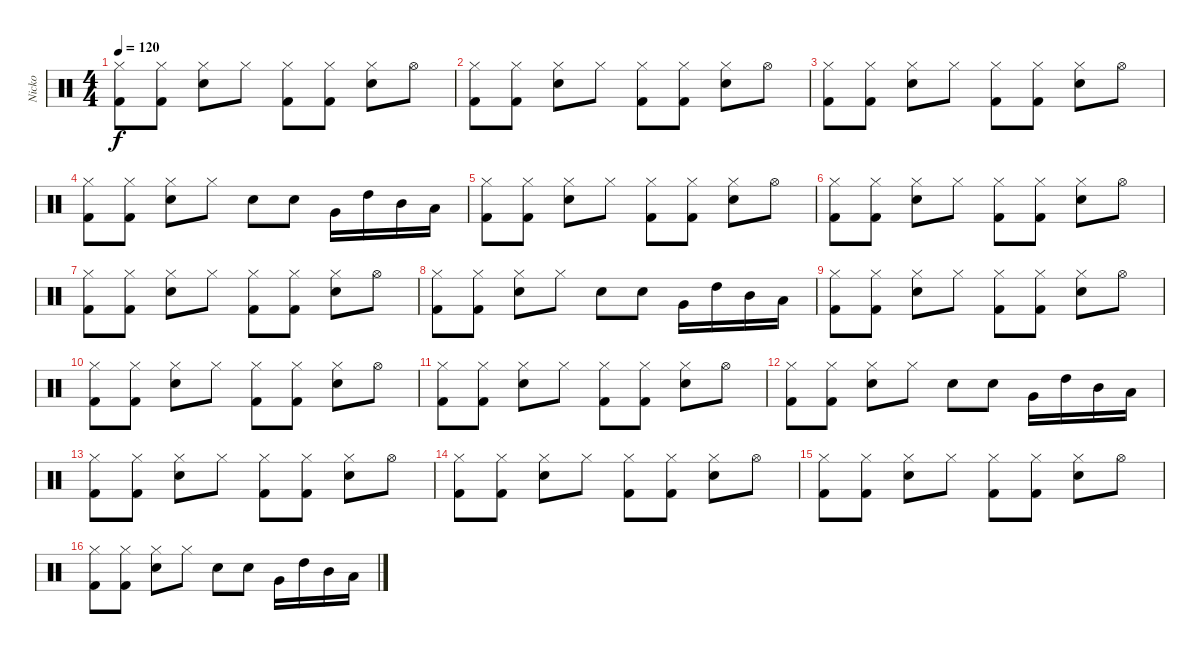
\track ("Nicko" "Nicko") {instrument percussion}
\staff {score}
\articulation defaults
\ts (4 4)
\tempo 120
\clef neutral
\ks c
("Kick (hit) 2" "Hi-Hat (closed)").8{dy f} ("Kick (hit) 2" "Hi-Hat (closed)").8 ("Electric Snare (hit)" "Hi-Hat (closed)").8 "Hi-Hat (closed)".8 ("Kick (hit) 2" "Hi-Hat (closed)").8 ("Kick (hit) 2" "Hi-Hat (closed)").8 ("Electric Snare (hit)" "Hi-Hat (closed)").8 "Hi-Hat (open)".8 |
("Kick (hit) 2" "Hi-Hat (closed)").8 ("Kick (hit) 2" "Hi-Hat (closed)").8 ("Electric Snare (hit)" "Hi-Hat (closed)").8 "Hi-Hat (closed)".8 ("Kick (hit) 2" "Hi-Hat (closed)").8 ("Kick (hit) 2" "Hi-Hat (closed)").8 ("Electric Snare (hit)" "Hi-Hat (closed)").8 "Hi-Hat (open)".8 |
("Kick (hit) 2" "Hi-Hat (closed)").8 ("Kick (hit) 2" "Hi-Hat (closed)").8 ("Electric Snare (hit)" "Hi-Hat (closed)").8 "Hi-Hat (closed)".8 ("Kick (hit) 2" "Hi-Hat (closed)").8 ("Kick (hit) 2" "Hi-Hat (closed)").8 ("Electric Snare (hit)" "Hi-Hat (closed)").8 "Hi-Hat (open)".8 |
("Kick (hit) 2" "Hi-Hat (closed)").8 ("Kick (hit) 2" "Hi-Hat (closed)").8 ("Electric Snare (hit)" "Hi-Hat (closed)").8 "Hi-Hat (closed)".8 "Snare (hit) 2".8 "Snare (hit) 2".8 "Very Low Tom (hit)".16 "High Tom (hit)".16 "Mid Tom (hit)".16 "Low Tom (hit)".16 |
("Kick (hit) 2" "Hi-Hat (closed)").8 ("Kick (hit) 2" "Hi-Hat (closed)").8 ("Electric Snare (hit)" "Hi-Hat (closed)").8 "Hi-Hat (closed)".8 ("Kick (hit) 2" "Hi-Hat (closed)").8 ("Kick (hit) 2" "Hi-Hat (closed)").8 ("Electric Snare (hit)" "Hi-Hat (closed)").8 "Hi-Hat (open)".8 |
("Kick (hit) 2" "Hi-Hat (closed)").8 ("Kick (hit) 2" "Hi-Hat (closed)").8 ("Electric Snare (hit)" "Hi-Hat (closed)").8 "Hi-Hat (closed)".8 ("Kick (hit) 2" "Hi-Hat (closed)").8 ("Kick (hit) 2" "Hi-Hat (closed)").8 ("Electric Snare (hit)" "Hi-Hat (closed)").8 "Hi-Hat (open)".8 |
("Kick (hit) 2" "Hi-Hat (closed)").8 ("Kick (hit) 2" "Hi-Hat (closed)").8 ("Electric Snare (hit)" "Hi-Hat (closed)").8 "Hi-Hat (closed)".8 ("Kick (hit) 2" "Hi-Hat (closed)").8 ("Kick (hit) 2" "Hi-Hat (closed)").8 ("Electric Snare (hit)" "Hi-Hat (closed)").8 "Hi-Hat (open)".8 |
("Kick (hit) 2" "Hi-Hat (closed)").8 ("Kick (hit) 2" "Hi-Hat (closed)").8 ("Electric Snare (hit)" "Hi-Hat (closed)").8 "Hi-Hat (closed)".8 "Snare (hit) 2".8 "Snare (hit) 2".8 "Very Low Tom (hit)".16 "High Tom (hit)".16 "Mid Tom (hit)".16 "Low Tom (hit)".16 |
("Kick (hit) 2" "Hi-Hat (closed)").8 ("Kick (hit) 2" "Hi-Hat (closed)").8 ("Electric Snare (hit)" "Hi-Hat (closed)").8 "Hi-Hat (closed)".8 ("Kick (hit) 2" "Hi-Hat (closed)").8 ("Kick (hit) 2" "Hi-Hat (closed)").8 ("Electric Snare (hit)" "Hi-Hat (closed)").8 "Hi-Hat (open)".8 |
("Kick (hit) 2" "Hi-Hat (closed)").8 ("Kick (hit) 2" "Hi-Hat (closed)").8 ("Electric Snare (hit)" "Hi-Hat (closed)").8 "Hi-Hat (closed)".8 ("Kick (hit) 2" "Hi-Hat (closed)").8 ("Kick (hit) 2" "Hi-Hat (closed)").8 ("Electric Snare (hit)" "Hi-Hat (closed)").8 "Hi-Hat (open)".8 |
("Kick (hit) 2" "Hi-Hat (closed)").8 ("Kick (hit) 2" "Hi-Hat (closed)").8 ("Electric Snare (hit)" "Hi-Hat (closed)").8 "Hi-Hat (closed)".8 ("Kick (hit) 2" "Hi-Hat (closed)").8 ("Kick (hit) 2" "Hi-Hat (closed)").8 ("Electric Snare (hit)" "Hi-Hat (closed)").8 "Hi-Hat (open)".8 |
("Kick (hit) 2" "Hi-Hat (closed)").8 ("Kick (hit) 2" "Hi-Hat (closed)").8 ("Electric Snare (hit)" "Hi-Hat (closed)").8 "Hi-Hat (closed)".8 "Snare (hit) 2".8 "Snare (hit) 2".8 "Very Low Tom (hit)".16 "High Tom (hit)".16 "Mid Tom (hit)".16 "Low Tom (hit)".16 |
("Kick (hit) 2" "Hi-Hat (closed)").8 ("Kick (hit) 2" "Hi-Hat (closed)").8 ("Electric Snare (hit)" "Hi-Hat (closed)").8 "Hi-Hat (closed)".8 ("Kick (hit) 2" "Hi-Hat (closed)").8 ("Kick (hit) 2" "Hi-Hat (closed)").8 ("Electric Snare (hit)" "Hi-Hat (closed)").8 "Hi-Hat (open)".8 |
("Kick (hit) 2" "Hi-Hat (closed)").8 ("Kick (hit) 2" "Hi-Hat (closed)").8 ("Electric Snare (hit)" "Hi-Hat (closed)").8 "Hi-Hat (closed)".8 ("Kick (hit) 2" "Hi-Hat (closed)").8 ("Kick (hit) 2" "Hi-Hat (closed)").8 ("Electric Snare (hit)" "Hi-Hat (closed)").8 "Hi-Hat (open)".8 |
("Kick (hit) 2" "Hi-Hat (closed)").8 ("Kick (hit) 2" "Hi-Hat (closed)").8 ("Electric Snare (hit)" "Hi-Hat (closed)").8 "Hi-Hat (closed)".8 ("Kick (hit) 2" "Hi-Hat (closed)").8 ("Kick (hit) 2" "Hi-Hat (closed)").8 ("Electric Snare (hit)" "Hi-Hat (closed)").8 "Hi-Hat (open)".8 |
("Kick (hit) 2" "Hi-Hat (closed)").8 ("Kick (hit) 2" "Hi-Hat (closed)").8 ("Electric Snare (hit)" "Hi-Hat (closed)").8 "Hi-Hat (closed)".8 "Snare (hit) 2".8 "Snare (hit) 2".8 "Very Low Tom (hit)".16 "High Tom (hit)".16 "Mid Tom (hit)".16 "Low Tom (hit)".16
